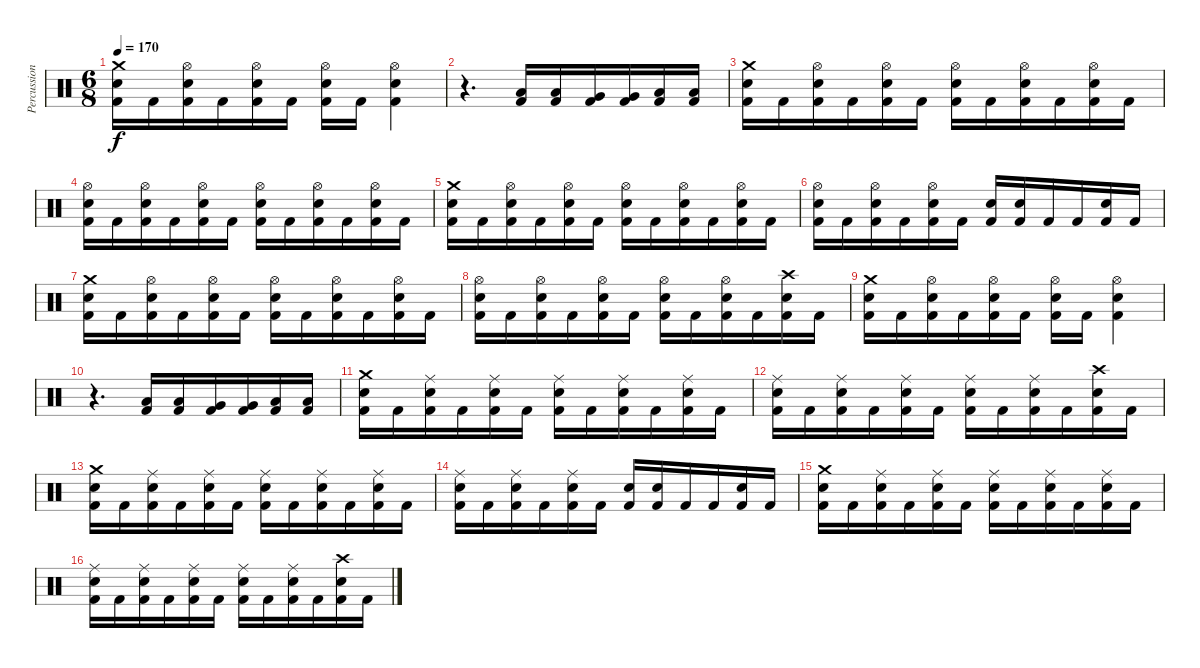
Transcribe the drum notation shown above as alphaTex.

\track ("Percussions" "Percussion") {instrument percussion}
\staff {score}
\articulation defaults
\ts (6 8)
\tempo 170
\clef neutral
\ks c
("Crash medium (hit)" "Electric Snare (hit)" "Kick (hit) 2").16{dy f} "Kick (hit) 2".16 ("Hi-Hat (open)" "Electric Snare (hit)" "Kick (hit) 2").16 "Kick (hit) 2".16 ("Hi-Hat (open)" "Electric Snare (hit)" "Kick (hit) 2").16 "Kick (hit) 2".16 ("Hi-Hat (open)" "Electric Snare (hit)" "Kick (hit) 2").16 "Kick (hit) 2".16 ("Hi-Hat (open)" "Electric Snare (hit)" "Kick (hit) 2").4 |
r.4{d} ("Low Tom (hit)" "Kick (hit) 2").16 ("Low Tom (hit)" "Kick (hit) 2").16 ("Very Low Tom (hit)" "Kick (hit) 2").16 ("Very Low Tom (hit)" "Kick (hit) 2").16 ("Low Floor Tom (hit)" "Kick (hit) 2").16 ("Low Floor Tom (hit)" "Kick (hit) 2").16 |
("Crash medium (hit)" "Electric Snare (hit)" "Kick (hit) 2").16 "Kick (hit) 2".16 ("Hi-Hat (open)" "Electric Snare (hit)" "Kick (hit) 2").16 "Kick (hit) 2".16 ("Hi-Hat (open)" "Electric Snare (hit)" "Kick (hit) 2").16 "Kick (hit) 2".16 ("Hi-Hat (open)" "Electric Snare (hit)" "Kick (hit) 2").16 "Kick (hit) 2".16 ("Hi-Hat (open)" "Electric Snare (hit)" "Kick (hit) 2").16 "Kick (hit) 2".16 ("Hi-Hat (open)" "Electric Snare (hit)" "Kick (hit) 2").16 "Kick (hit) 2".16 |
("Hi-Hat (open)" "Electric Snare (hit)" "Kick (hit) 2").16 "Kick (hit) 2".16 ("Hi-Hat (open)" "Electric Snare (hit)" "Kick (hit) 2").16 "Kick (hit) 2".16 ("Hi-Hat (open)" "Electric Snare (hit)" "Kick (hit) 2").16 "Kick (hit) 2".16 ("Hi-Hat (open)" "Electric Snare (hit)" "Kick (hit) 2").16 "Kick (hit) 2".16 ("Hi-Hat (open)" "Electric Snare (hit)" "Kick (hit) 2").16 "Kick (hit) 2".16 ("Hi-Hat (open)" "Electric Snare (hit)" "Kick (hit) 2").16 "Kick (hit) 2".16 |
("Crash medium (hit)" "Electric Snare (hit)" "Kick (hit) 2").16 "Kick (hit) 2".16 ("Hi-Hat (open)" "Electric Snare (hit)" "Kick (hit) 2").16 "Kick (hit) 2".16 ("Hi-Hat (open)" "Electric Snare (hit)" "Kick (hit) 2").16 "Kick (hit) 2".16 ("Hi-Hat (open)" "Electric Snare (hit)" "Kick (hit) 2").16 "Kick (hit) 2".16 ("Hi-Hat (open)" "Electric Snare (hit)" "Kick (hit) 2").16 "Kick (hit) 2".16 ("Hi-Hat (open)" "Electric Snare (hit)" "Kick (hit) 2").16 "Kick (hit) 2".16 |
("Hi-Hat (open)" "Electric Snare (hit)" "Kick (hit) 2").16 "Kick (hit) 2".16 ("Hi-Hat (open)" "Electric Snare (hit)" "Kick (hit) 2").16 "Kick (hit) 2".16 ("Hi-Hat (open)" "Electric Snare (hit)" "Kick (hit) 2").16 "Kick (hit) 2".16 ("Electric Snare (hit)" "Kick (hit) 2").16 ("Electric Snare (hit)" "Kick (hit) 2").16 "Kick (hit) 2".16 "Kick (hit) 2".16 ("Electric Snare (hit)" "Kick (hit) 2").16 "Kick (hit) 2".16 |
("Crash medium (hit)" "Electric Snare (hit)" "Kick (hit) 2").16 "Kick (hit) 2".16 ("Hi-Hat (open)" "Electric Snare (hit)" "Kick (hit) 2").16 "Kick (hit) 2".16 ("Hi-Hat (open)" "Electric Snare (hit)" "Kick (hit) 2").16 "Kick (hit) 2".16 ("Hi-Hat (open)" "Electric Snare (hit)" "Kick (hit) 2").16 "Kick (hit) 2".16 ("Hi-Hat (open)" "Electric Snare (hit)" "Kick (hit) 2").16 "Kick (hit) 2".16 ("Hi-Hat (open)" "Electric Snare (hit)" "Kick (hit) 2").16 "Kick (hit) 2".16 |
("Hi-Hat (open)" "Electric Snare (hit)" "Kick (hit) 2").16 "Kick (hit) 2".16 ("Hi-Hat (open)" "Electric Snare (hit)" "Kick (hit) 2").16 "Kick (hit) 2".16 ("Hi-Hat (open)" "Electric Snare (hit)" "Kick (hit) 2").16 "Kick (hit) 2".16 ("Hi-Hat (open)" "Electric Snare (hit)" "Kick (hit) 2").16 "Kick (hit) 2".16 ("Hi-Hat (open)" "Electric Snare (hit)" "Kick (hit) 2").16 "Kick (hit) 2".16 ("Crash high (hit)" "Electric Snare (hit)" "Kick (hit) 2").16 "Kick (hit) 2".16 |
("Crash medium (hit)" "Electric Snare (hit)" "Kick (hit) 2").16 "Kick (hit) 2".16 ("Hi-Hat (open)" "Electric Snare (hit)" "Kick (hit) 2").16 "Kick (hit) 2".16 ("Hi-Hat (open)" "Electric Snare (hit)" "Kick (hit) 2").16 "Kick (hit) 2".16 ("Hi-Hat (open)" "Electric Snare (hit)" "Kick (hit) 2").16 "Kick (hit) 2".16 ("Hi-Hat (open)" "Electric Snare (hit)" "Kick (hit) 2").4 |
r.4{d} ("Low Tom (hit)" "Kick (hit) 2").16 ("Low Tom (hit)" "Kick (hit) 2").16 ("Very Low Tom (hit)" "Kick (hit) 2").16 ("Very Low Tom (hit)" "Kick (hit) 2").16 ("Low Floor Tom (hit)" "Kick (hit) 2").16 ("Low Floor Tom (hit)" "Kick (hit) 2").16 |
("Crash medium (hit)" "Electric Snare (hit)" "Kick (hit) 2").16 "Kick (hit) 2".16 ("Ride (middle)" "Electric Snare (hit)" "Kick (hit) 2").16 "Kick (hit) 2".16 ("Ride (middle)" "Electric Snare (hit)" "Kick (hit) 2").16 "Kick (hit) 2".16 ("Ride (middle)" "Electric Snare (hit)" "Kick (hit) 2").16 "Kick (hit) 2".16 ("Ride (middle)" "Electric Snare (hit)" "Kick (hit) 2").16 "Kick (hit) 2".16 ("Ride (middle)" "Electric Snare (hit)" "Kick (hit) 2").16 "Kick (hit) 2".16 |
("Ride (middle)" "Electric Snare (hit)" "Kick (hit) 2").16 "Kick (hit) 2".16 ("Ride (middle)" "Electric Snare (hit)" "Kick (hit) 2").16 "Kick (hit) 2".16 ("Ride (middle)" "Electric Snare (hit)" "Kick (hit) 2").16 "Kick (hit) 2".16 ("Ride (middle)" "Electric Snare (hit)" "Kick (hit) 2").16 "Kick (hit) 2".16 ("Ride (middle)" "Electric Snare (hit)" "Kick (hit) 2").16 "Kick (hit) 2".16 ("Crash high (hit)" "Electric Snare (hit)" "Kick (hit) 2").16 "Kick (hit) 2".16 |
("Crash medium (hit)" "Electric Snare (hit)" "Kick (hit) 2").16 "Kick (hit) 2".16 ("Ride (middle)" "Electric Snare (hit)" "Kick (hit) 2").16 "Kick (hit) 2".16 ("Ride (middle)" "Electric Snare (hit)" "Kick (hit) 2").16 "Kick (hit) 2".16 ("Ride (middle)" "Electric Snare (hit)" "Kick (hit) 2").16 "Kick (hit) 2".16 ("Ride (middle)" "Electric Snare (hit)" "Kick (hit) 2").16 "Kick (hit) 2".16 ("Ride (middle)" "Electric Snare (hit)" "Kick (hit) 2").16 "Kick (hit) 2".16 |
("Ride (middle)" "Electric Snare (hit)" "Kick (hit) 2").16 "Kick (hit) 2".16 ("Ride (middle)" "Electric Snare (hit)" "Kick (hit) 2").16 "Kick (hit) 2".16 ("Ride (middle)" "Electric Snare (hit)" "Kick (hit) 2").16 "Kick (hit) 2".16 ("Electric Snare (hit)" "Kick (hit) 2").16 ("Electric Snare (hit)" "Kick (hit) 2").16 "Kick (hit) 2".16 "Kick (hit) 2".16 ("Electric Snare (hit)" "Kick (hit) 2").16 "Kick (hit) 2".16 |
("Crash medium (hit)" "Electric Snare (hit)" "Kick (hit) 2").16 "Kick (hit) 2".16 ("Ride (middle)" "Electric Snare (hit)" "Kick (hit) 2").16 "Kick (hit) 2".16 ("Ride (middle)" "Electric Snare (hit)" "Kick (hit) 2").16 "Kick (hit) 2".16 ("Ride (middle)" "Electric Snare (hit)" "Kick (hit) 2").16 "Kick (hit) 2".16 ("Ride (middle)" "Electric Snare (hit)" "Kick (hit) 2").16 "Kick (hit) 2".16 ("Ride (middle)" "Electric Snare (hit)" "Kick (hit) 2").16 "Kick (hit) 2".16 |
("Ride (middle)" "Electric Snare (hit)" "Kick (hit) 2").16 "Kick (hit) 2".16 ("Ride (middle)" "Electric Snare (hit)" "Kick (hit) 2").16 "Kick (hit) 2".16 ("Ride (middle)" "Electric Snare (hit)" "Kick (hit) 2").16 "Kick (hit) 2".16 ("Ride (middle)" "Electric Snare (hit)" "Kick (hit) 2").16 "Kick (hit) 2".16 ("Ride (middle)" "Electric Snare (hit)" "Kick (hit) 2").16 "Kick (hit) 2".16 ("Crash high (hit)" "Electric Snare (hit)" "Kick (hit) 2").16 "Kick (hit) 2".16
